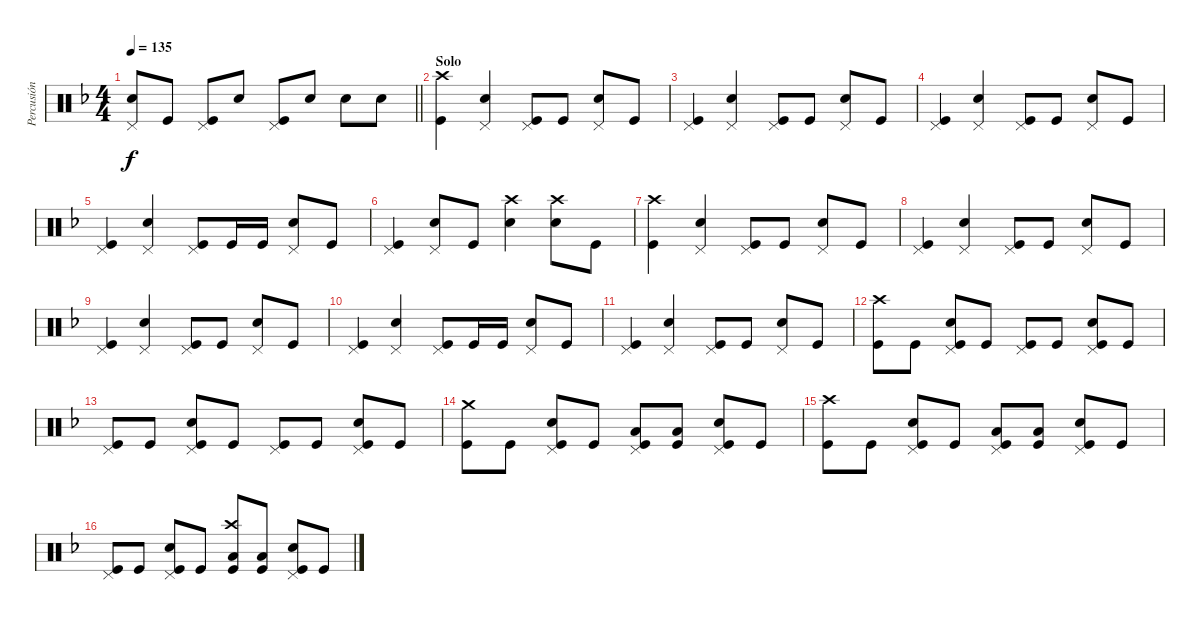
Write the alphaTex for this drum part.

\track ("Percusión" "Percusión") {instrument percussion}
\staff {score}
\articulation defaults
\ts (4 4)
\tempo 135
\clef neutral
\barLineRight lightlight
\ks dminor
("Pedal Hi-Hat (hit)" "Snare (hit) 2").8{dy f} "Kick (hit)".8 ("Pedal Hi-Hat (hit)" "Kick (hit)").8 "Snare (hit) 2".8 ("Pedal Hi-Hat (hit)" "Kick (hit)").8 "Snare (hit) 2".8 "Snare (hit) 2".8 "Snare (hit) 2".8 |
\section ("" "Solo")
("Crash high (hit)" "Kick (hit)").4 ("Pedal Hi-Hat (hit)" "Snare (hit) 2").4 ("Pedal Hi-Hat (hit)" "Kick (hit)").8 "Kick (hit)".8 ("Pedal Hi-Hat (hit)" "Snare (hit) 2").8 "Kick (hit)".8 |
("Pedal Hi-Hat (hit)" "Kick (hit)").4 ("Pedal Hi-Hat (hit)" "Snare (hit) 2").4 ("Pedal Hi-Hat (hit)" "Kick (hit)").8 "Kick (hit)".8 ("Pedal Hi-Hat (hit)" "Snare (hit) 2").8 "Kick (hit)".8 |
("Pedal Hi-Hat (hit)" "Kick (hit)").4 ("Pedal Hi-Hat (hit)" "Snare (hit) 2").4 ("Pedal Hi-Hat (hit)" "Kick (hit)").8 "Kick (hit)".8 ("Pedal Hi-Hat (hit)" "Snare (hit) 2").8 "Kick (hit)".8 |
("Pedal Hi-Hat (hit)" "Kick (hit)").4 ("Pedal Hi-Hat (hit)" "Snare (hit) 2").4 ("Pedal Hi-Hat (hit)" "Kick (hit)").8 "Kick (hit)".16 "Kick (hit)".16 ("Pedal Hi-Hat (hit)" "Snare (hit) 2").8 "Kick (hit)".8 |
("Pedal Hi-Hat (hit)" "Kick (hit)").4 ("Pedal Hi-Hat (hit)" "Snare (hit) 2").8 "Kick (hit)".8 ("Crash high (hit)" "Snare (hit) 2").4 ("Crash high (hit)" "Snare (hit) 2").8 "Kick (hit)".8 |
("Crash high (hit)" "Kick (hit)").4 ("Pedal Hi-Hat (hit)" "Snare (hit) 2").4 ("Pedal Hi-Hat (hit)" "Kick (hit)").8 "Kick (hit)".8 ("Pedal Hi-Hat (hit)" "Snare (hit) 2").8 "Kick (hit)".8 |
("Pedal Hi-Hat (hit)" "Kick (hit)").4 ("Pedal Hi-Hat (hit)" "Snare (hit) 2").4 ("Pedal Hi-Hat (hit)" "Kick (hit)").8 "Kick (hit)".8 ("Pedal Hi-Hat (hit)" "Snare (hit) 2").8 "Kick (hit)".8 |
("Pedal Hi-Hat (hit)" "Kick (hit)").4 ("Pedal Hi-Hat (hit)" "Snare (hit) 2").4 ("Pedal Hi-Hat (hit)" "Kick (hit)").8 "Kick (hit)".8 ("Pedal Hi-Hat (hit)" "Snare (hit) 2").8 "Kick (hit)".8 |
("Pedal Hi-Hat (hit)" "Kick (hit)").4 ("Pedal Hi-Hat (hit)" "Snare (hit) 2").4 ("Pedal Hi-Hat (hit)" "Kick (hit)").8 "Kick (hit)".16 "Kick (hit)".16 ("Pedal Hi-Hat (hit)" "Snare (hit) 2").8 "Kick (hit)".8 |
("Pedal Hi-Hat (hit)" "Kick (hit)").4 ("Pedal Hi-Hat (hit)" "Snare (hit) 2").4 ("Pedal Hi-Hat (hit)" "Kick (hit)").8 "Kick (hit)".8 ("Pedal Hi-Hat (hit)" "Snare (hit) 2").8 "Kick (hit)".8 |
("Crash high (hit)" "Kick (hit)").8 "Kick (hit)".8 ("Pedal Hi-Hat (hit)" "Snare (hit) 2" "Kick (hit)").8 "Kick (hit)".8 ("Pedal Hi-Hat (hit)" "Kick (hit)").8 "Kick (hit)".8 ("Pedal Hi-Hat (hit)" "Snare (hit) 2" "Kick (hit)").8 "Kick (hit)".8 |
("Pedal Hi-Hat (hit)" "Kick (hit)").8 "Kick (hit)".8 ("Pedal Hi-Hat (hit)" "Snare (hit) 2" "Kick (hit)").8 "Kick (hit)".8 ("Pedal Hi-Hat (hit)" "Kick (hit)").8 "Kick (hit)".8 ("Pedal Hi-Hat (hit)" "Snare (hit) 2" "Kick (hit)").8 "Kick (hit)".8 |
("Crash medium (hit)" "Kick (hit)").8 "Kick (hit)".8 ("Pedal Hi-Hat (hit)" "Snare (hit) 2" "Kick (hit)").8 "Kick (hit)".8 ("Pedal Hi-Hat (hit)" "Low Tom (hit)" "Kick (hit)").8 ("Low Tom (hit)" "Kick (hit)").8 ("Pedal Hi-Hat (hit)" "Snare (hit) 2" "Kick (hit)").8 "Kick (hit)".8 |
("Crash high (hit)" "Kick (hit)").8 "Kick (hit)".8 ("Pedal Hi-Hat (hit)" "Snare (hit) 2" "Kick (hit)").8 "Kick (hit)".8 ("Pedal Hi-Hat (hit)" "Low Tom (hit)" "Kick (hit)").8 ("Low Tom (hit)" "Kick (hit)").8 ("Pedal Hi-Hat (hit)" "Snare (hit) 2" "Kick (hit)").8 "Kick (hit)".8 |
("Pedal Hi-Hat (hit)" "Kick (hit)").8 "Kick (hit)".8 ("Pedal Hi-Hat (hit)" "Snare (hit) 2" "Kick (hit)").8 "Kick (hit)".8 ("Crash high (hit)" "Low Tom (hit)" "Kick (hit)").8 ("Low Tom (hit)" "Kick (hit)").8 ("Pedal Hi-Hat (hit)" "Snare (hit) 2" "Kick (hit)").8 "Kick (hit)".8
